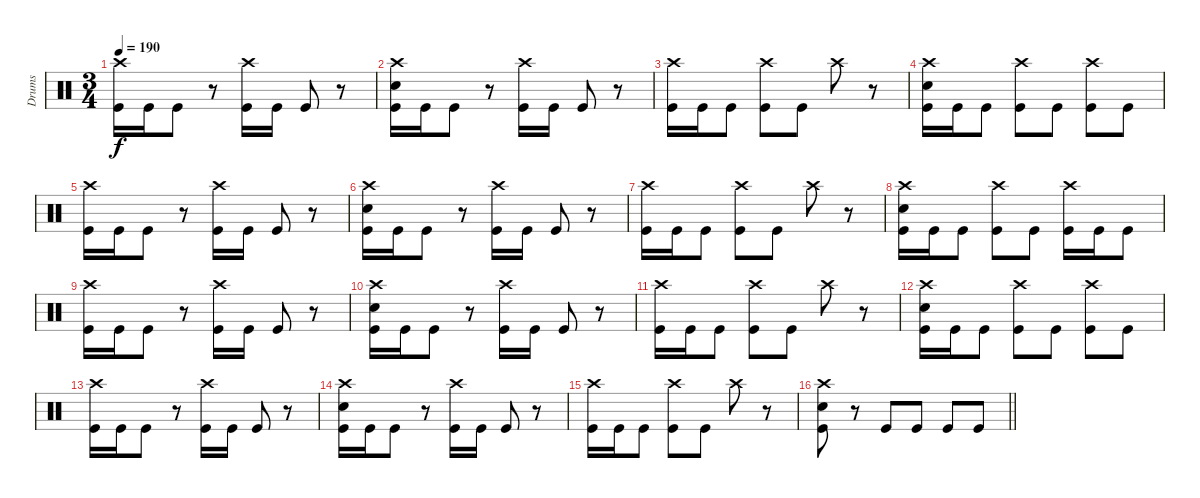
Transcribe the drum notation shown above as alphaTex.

\track ("Drums" "Drums") {instrument percussion}
\staff {score}
\articulation defaults
\ts (3 4)
\tempo 190
\clef neutral
\ks c
("Crash high (hit)" "Kick (hit)").16{dy f} "Kick (hit)".16 "Kick (hit)".8 r.8 ("Kick (hit)" "Crash high (hit)").16 "Kick (hit)".16 "Kick (hit)".8 r.8 |
("Kick (hit)" "Crash high (hit)" "Snare (hit) 2").16 "Kick (hit)".16 "Kick (hit)".8 r.8 ("Kick (hit)" "Crash high (hit)").16 "Kick (hit)".16 "Kick (hit)".8 r.8 |
("Kick (hit)" "Crash high (hit)").16 "Kick (hit)".16 "Kick (hit)".8 ("Kick (hit)" "Crash high (hit)").8 "Kick (hit)".8 "Crash high (hit)".8 r.8 |
("Kick (hit)" "Crash high (hit)" "Snare (hit) 2").16 "Kick (hit)".16 "Kick (hit)".8 ("Kick (hit)" "Crash high (hit)").8 "Kick (hit)".8 ("Kick (hit)" "Crash high (hit)").8 "Kick (hit)".8 |
("Crash high (hit)" "Kick (hit)").16 "Kick (hit)".16 "Kick (hit)".8 r.8 ("Kick (hit)" "Crash high (hit)").16 "Kick (hit)".16 "Kick (hit)".8 r.8 |
("Kick (hit)" "Crash high (hit)" "Snare (hit) 2").16 "Kick (hit)".16 "Kick (hit)".8 r.8 ("Kick (hit)" "Crash high (hit)").16 "Kick (hit)".16 "Kick (hit)".8 r.8 |
("Kick (hit)" "Crash high (hit)").16 "Kick (hit)".16 "Kick (hit)".8 ("Kick (hit)" "Crash high (hit)").8 "Kick (hit)".8 "Crash high (hit)".8 r.8 |
("Kick (hit)" "Crash high (hit)" "Snare (hit) 2").16 "Kick (hit)".16 "Kick (hit)".8 ("Kick (hit)" "Crash high (hit)").8 "Kick (hit)".8 ("Kick (hit)" "Crash high (hit)").16 "Kick (hit)".16 "Kick (hit)".8 |
("Crash high (hit)" "Kick (hit)").16 "Kick (hit)".16 "Kick (hit)".8 r.8 ("Kick (hit)" "Crash high (hit)").16 "Kick (hit)".16 "Kick (hit)".8 r.8 |
("Kick (hit)" "Crash high (hit)" "Snare (hit) 2").16 "Kick (hit)".16 "Kick (hit)".8 r.8 ("Kick (hit)" "Crash high (hit)").16 "Kick (hit)".16 "Kick (hit)".8 r.8 |
("Kick (hit)" "Crash high (hit)").16 "Kick (hit)".16 "Kick (hit)".8 ("Kick (hit)" "Crash high (hit)").8 "Kick (hit)".8 "Crash high (hit)".8 r.8 |
("Kick (hit)" "Crash high (hit)" "Snare (hit) 2").16 "Kick (hit)".16 "Kick (hit)".8 ("Kick (hit)" "Crash high (hit)").8 "Kick (hit)".8 ("Kick (hit)" "Crash high (hit)").8 "Kick (hit)".8 |
("Crash high (hit)" "Kick (hit)").16 "Kick (hit)".16 "Kick (hit)".8 r.8 ("Kick (hit)" "Crash high (hit)").16 "Kick (hit)".16 "Kick (hit)".8 r.8 |
("Kick (hit)" "Crash high (hit)" "Snare (hit) 2").16 "Kick (hit)".16 "Kick (hit)".8 r.8 ("Kick (hit)" "Crash high (hit)").16 "Kick (hit)".16 "Kick (hit)".8 r.8 |
("Kick (hit)" "Crash high (hit)").16 "Kick (hit)".16 "Kick (hit)".8 ("Kick (hit)" "Crash high (hit)").8 "Kick (hit)".8 "Crash high (hit)".8 r.8 |
\barLineRight lightlight
("Snare (hit) 2" "Crash high (hit)" "Kick (hit)").8 r.8 "Kick (hit)".8 "Kick (hit)".8 "Kick (hit)".8 "Kick (hit)".8
